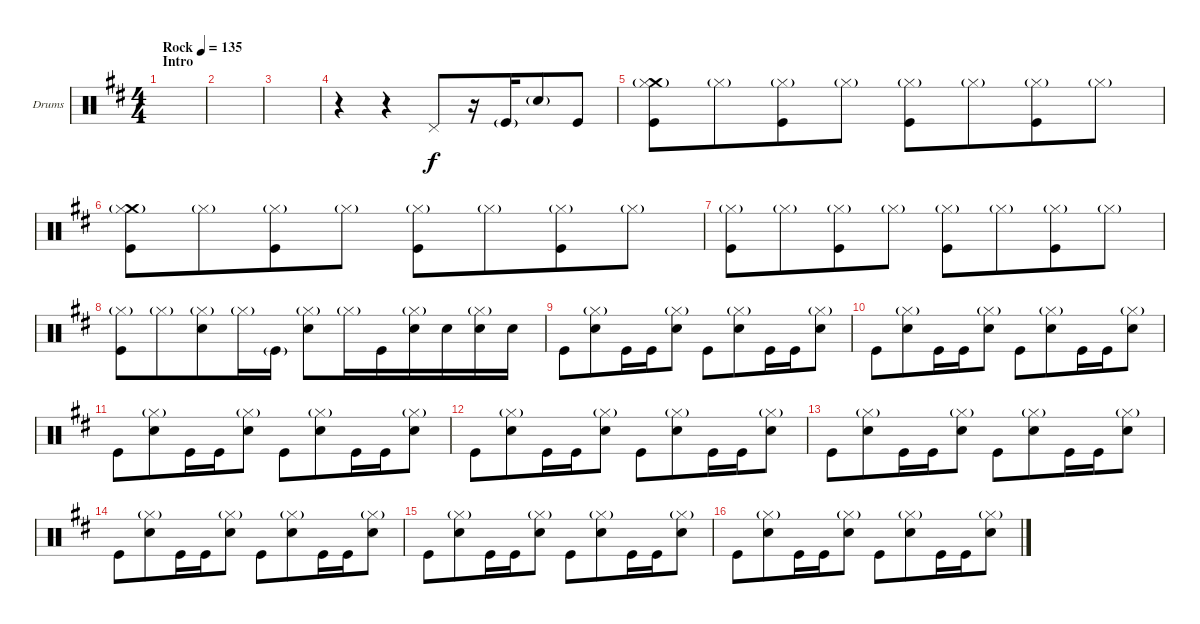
\defaultSystemsLayout 4
\bracketExtendMode groupsimilarinstruments
\firstSystemTrackNameOrientation horizontal
\otherSystemsTrackNameOrientation horizontal
\track ("Drumkit" "Drums") {instrument percussion}
\staff {score}
\articulation defaults
\ts (4 4)
\beaming (8 4 4)
\section ("" "Intro")
\tempo (135 "Rock")
\clef neutral
\scale
1.11349
\ks d
|
\scale
0.943253 |
\scale
0.943253 |
\scale
1.05296 r.4 r.4 "Pedal Hi-Hat (hit)".8 r.16 "Kick (hit)"{g}.16 "Snare (hit) 2"{g}.8 "Kick (hit)".8 |
\scale
0.973518 ("Crash medium (hit)"{g} "Hi-Hat (closed)"{g} "Kick (hit)").8 "Hi-Hat (closed)"{g}.8 ("Hi-Hat (closed)"{g} "Kick (hit)").8 "Hi-Hat (closed)"{g}.8 ("Hi-Hat (closed)"{g} "Kick (hit)").8 "Hi-Hat (closed)"{g}.8 ("Hi-Hat (closed)"{g} "Kick (hit)").8 "Hi-Hat (closed)"{g}.8 |
\scale
0.973518 ("Crash medium (hit)"{g} "Hi-Hat (closed)"{g} "Kick (hit)").8 "Hi-Hat (closed)"{g}.8 ("Hi-Hat (closed)"{g} "Kick (hit)").8 "Hi-Hat (closed)"{g}.8 ("Hi-Hat (closed)"{g} "Kick (hit)").8 "Hi-Hat (closed)"{g}.8 ("Hi-Hat (closed)"{g} "Kick (hit)").8 "Hi-Hat (closed)"{g}.8 |
\scale
1.05296 ("Hi-Hat (closed)"{g} "Kick (hit)").8 "Hi-Hat (closed)"{g}.8 ("Hi-Hat (closed)"{g} "Kick (hit)").8 "Hi-Hat (closed)"{g}.8 ("Hi-Hat (closed)"{g} "Kick (hit)").8 "Hi-Hat (closed)"{g}.8 ("Hi-Hat (closed)"{g} "Kick (hit)").8 "Hi-Hat (closed)"{g}.8 |
\scale
0.973518 ("Hi-Hat (closed)"{g} "Kick (hit)").8 "Hi-Hat (closed)"{g}.8 ("Hi-Hat (closed)"{g} "Snare (hit) 2").8 "Hi-Hat (closed)"{g}.16 "Kick (hit)"{g}.16 ("Hi-Hat (closed)"{g} "Snare (hit) 2").8{dy f} "Hi-Hat (closed)"{g}.16 "Kick (hit)".16 ("Hi-Hat (closed)"{g} "Snare (hit) 2").16 "Snare (hit) 2".16 ("Hi-Hat (closed)"{g} "Snare (hit) 2").16 "Snare (hit) 2".16 |
\scale
0.973518 "Kick (hit)".8 ("Snare (hit) 2" "Hi-Hat (closed)"{g}).8 "Kick (hit)".16 "Kick (hit)".16 ("Snare (hit) 2" "Hi-Hat (closed)"{g}).8 "Kick (hit)".8 ("Snare (hit) 2" "Hi-Hat (closed)"{g}).8 "Kick (hit)".16 "Kick (hit)".16 ("Snare (hit) 2" "Hi-Hat (closed)"{g}).8 |
\scale
1.05296 "Kick (hit)".8 ("Snare (hit) 2" "Hi-Hat (closed)"{g}).8 "Kick (hit)".16 "Kick (hit)".16 ("Snare (hit) 2" "Hi-Hat (closed)"{g}).8 "Kick (hit)".8 ("Snare (hit) 2" "Hi-Hat (closed)"{g}).8 "Kick (hit)".16 "Kick (hit)".16 ("Snare (hit) 2" "Hi-Hat (closed)"{g}).8 |
\scale
0.973518 "Kick (hit)".8 ("Snare (hit) 2" "Hi-Hat (closed)"{g}).8 "Kick (hit)".16 "Kick (hit)".16 ("Snare (hit) 2" "Hi-Hat (closed)"{g}).8 "Kick (hit)".8 ("Snare (hit) 2" "Hi-Hat (closed)"{g}).8 "Kick (hit)".16 "Kick (hit)".16 ("Snare (hit) 2" "Hi-Hat (closed)"{g}).8 |
\scale
0.973518 "Kick (hit)".8 ("Snare (hit) 2" "Hi-Hat (closed)"{g}).8 "Kick (hit)".16 "Kick (hit)".16 ("Snare (hit) 2" "Hi-Hat (closed)"{g}).8 "Kick (hit)".8 ("Snare (hit) 2" "Hi-Hat (closed)"{g}).8 "Kick (hit)".16 "Kick (hit)".16 ("Snare (hit) 2" "Hi-Hat (closed)"{g}).8 |
\scale
1.05296 "Kick (hit)".8 ("Snare (hit) 2" "Hi-Hat (closed)"{g}).8 "Kick (hit)".16 "Kick (hit)".16 ("Snare (hit) 2" "Hi-Hat (closed)"{g}).8 "Kick (hit)".8 ("Snare (hit) 2" "Hi-Hat (closed)"{g}).8 "Kick (hit)".16 "Kick (hit)".16 ("Snare (hit) 2" "Hi-Hat (closed)"{g}).8 |
\scale
0.973518 "Kick (hit)".8 ("Snare (hit) 2" "Hi-Hat (closed)"{g}).8 "Kick (hit)".16 "Kick (hit)".16 ("Snare (hit) 2" "Hi-Hat (closed)"{g}).8 "Kick (hit)".8 ("Snare (hit) 2" "Hi-Hat (closed)"{g}).8 "Kick (hit)".16 "Kick (hit)".16 ("Snare (hit) 2" "Hi-Hat (closed)"{g}).8 |
\scale
0.973518 "Kick (hit)".8 ("Snare (hit) 2" "Hi-Hat (closed)"{g}).8 "Kick (hit)".16 "Kick (hit)".16 ("Snare (hit) 2" "Hi-Hat (closed)"{g}).8 "Kick (hit)".8 ("Snare (hit) 2" "Hi-Hat (closed)"{g}).8 "Kick (hit)".16 "Kick (hit)".16 ("Snare (hit) 2" "Hi-Hat (closed)"{g}).8 |
\scale
1.05296 "Kick (hit)".8 ("Snare (hit) 2" "Hi-Hat (closed)"{g}).8 "Kick (hit)".16 "Kick (hit)".16 ("Snare (hit) 2" "Hi-Hat (closed)"{g}).8 "Kick (hit)".8 ("Snare (hit) 2" "Hi-Hat (closed)"{g}).8 "Kick (hit)".16 "Kick (hit)".16 ("Snare (hit) 2" "Hi-Hat (closed)"{g}).8
